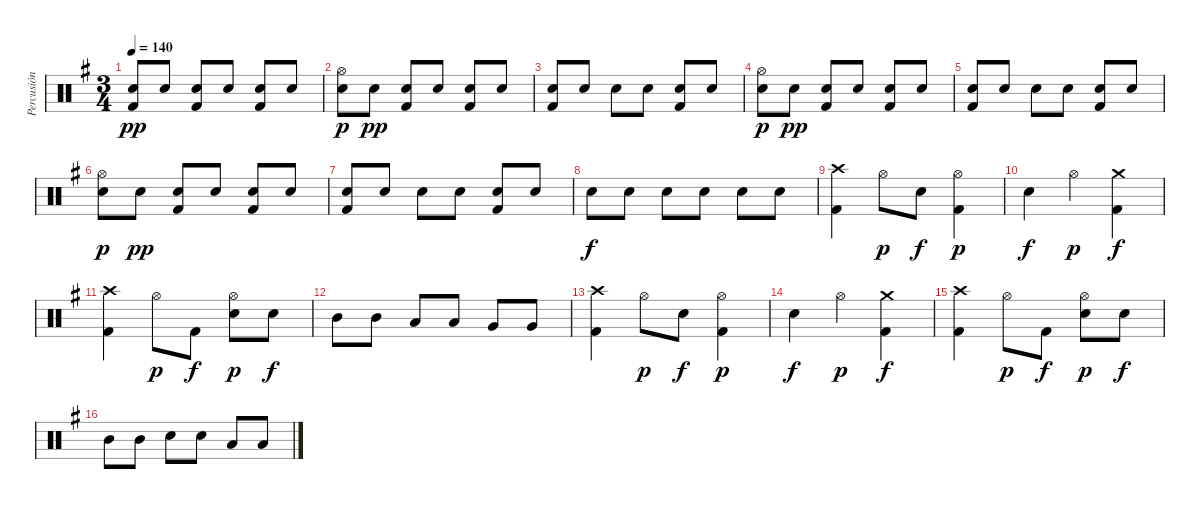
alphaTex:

\track ("Percusión" "Percusión") {instrument percussion}
\staff {score}
\articulation defaults
\ts (3 4)
\tempo 140
\clef neutral
\ks g
("Snare (hit) 2" "Kick (hit) 2").8{dy pp} "Snare (hit) 2".8 ("Snare (hit) 2" "Kick (hit) 2").8 "Snare (hit) 2".8 ("Snare (hit) 2" "Kick (hit) 2").8 "Snare (hit) 2".8 |
("Snare (hit) 2" "Hi-Hat (open)").8{dy p} "Snare (hit) 2".8{dy pp} ("Snare (hit) 2" "Kick (hit) 2").8 "Snare (hit) 2".8 ("Snare (hit) 2" "Kick (hit) 2").8 "Snare (hit) 2".8 |
("Snare (hit) 2" "Kick (hit) 2").8 "Snare (hit) 2".8 "Snare (hit) 2".8 "Snare (hit) 2".8 ("Snare (hit) 2" "Kick (hit) 2").8 "Snare (hit) 2".8 |
("Snare (hit) 2" "Hi-Hat (open)").8{dy p} "Snare (hit) 2".8{dy pp} ("Snare (hit) 2" "Kick (hit) 2").8 "Snare (hit) 2".8 ("Snare (hit) 2" "Kick (hit) 2").8 "Snare (hit) 2".8 |
("Snare (hit) 2" "Kick (hit) 2").8 "Snare (hit) 2".8 "Snare (hit) 2".8 "Snare (hit) 2".8 ("Snare (hit) 2" "Kick (hit) 2").8 "Snare (hit) 2".8 |
("Snare (hit) 2" "Hi-Hat (open)").8{dy p} "Snare (hit) 2".8{dy pp} ("Snare (hit) 2" "Kick (hit) 2").8 "Snare (hit) 2".8 ("Snare (hit) 2" "Kick (hit) 2").8 "Snare (hit) 2".8 |
("Snare (hit) 2" "Kick (hit) 2").8 "Snare (hit) 2".8 "Snare (hit) 2".8 "Snare (hit) 2".8 ("Snare (hit) 2" "Kick (hit) 2").8 "Snare (hit) 2".8 |
"Snare (hit) 2".8{dy f} "Snare (hit) 2".8 "Snare (hit) 2".8 "Snare (hit) 2".8 "Snare (hit) 2".8 "Snare (hit) 2".8 |
("Crash high (hit)" "Kick (hit) 2").4 "Hi-Hat (open)".8{dy p} "Snare (hit) 2".8{dy f} ("Hi-Hat (open)" "Kick (hit) 2").4{dy p} |
"Snare (hit) 2".4{dy f} "Hi-Hat (open)".4{dy p} ("Crash medium (hit)" "Kick (hit) 2").4{dy f} |
("Crash high (hit)" "Kick (hit) 2").4 "Hi-Hat (open)".8{dy p} "Kick (hit) 2".8{dy f} ("Hi-Hat (open)" "Snare (hit) 2").8{dy p} "Snare (hit) 2".8{dy f} |
"Mid Tom (hit)".8 "Mid Tom (hit)".8 "Low Tom (hit)".8 "Low Tom (hit)".8 "Very Low Tom (hit)".8 "Very Low Tom (hit)".8 |
("Crash high (hit)" "Kick (hit) 2").4 "Hi-Hat (open)".8{dy p} "Snare (hit) 2".8{dy f} ("Hi-Hat (open)" "Kick (hit) 2").4{dy p} |
"Snare (hit) 2".4{dy f} "Hi-Hat (open)".4{dy p} ("Crash medium (hit)" "Kick (hit) 2").4{dy f} |
("Crash high (hit)" "Kick (hit) 2").4 "Hi-Hat (open)".8{dy p} "Kick (hit) 2".8{dy f} ("Hi-Hat (open)" "Snare (hit) 2").8{dy p} "Snare (hit) 2".8{dy f} |
"Mid Tom (hit)".8 "Mid Tom (hit)".8 "Snare (hit) 2".8 "Snare (hit) 2".8 "Low Tom (hit)".8 "Low Tom (hit)".8
